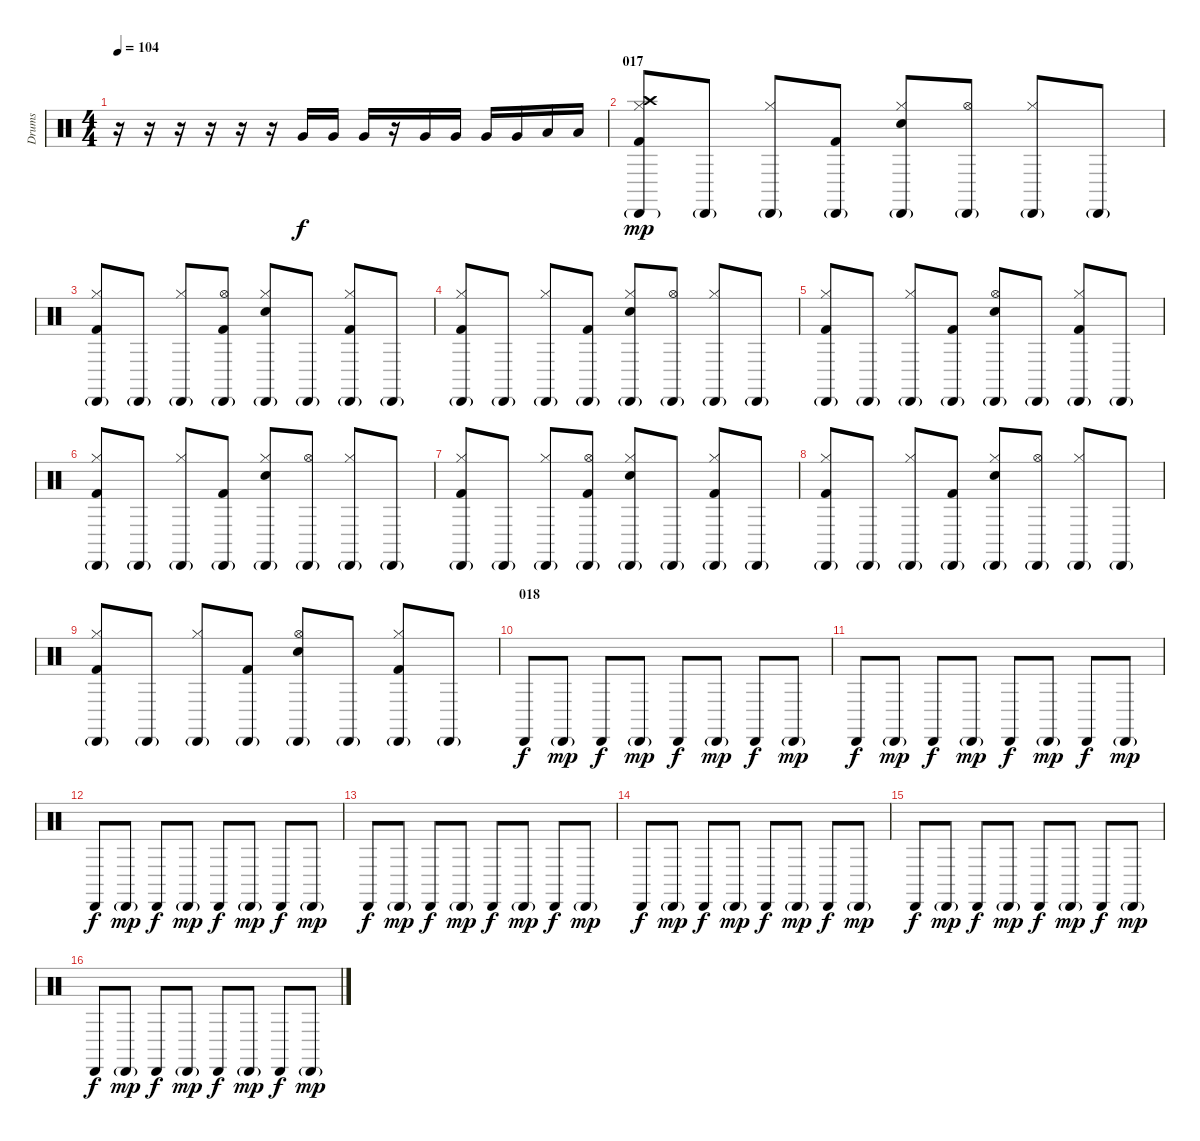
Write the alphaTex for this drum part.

\track ("Drums" "Drums") {instrument percussion}
\staff {score}
\articulation defaults
\ts (4 4)
\tempo 104
\clef neutral
\ks c
r.16{dy f} r.16 r.16 r.16 r.16 r.16 "Very Low Tom (hit)".16 "Very Low Tom (hit)".16 "Very Low Tom (hit)".16 r.16 "Very Low Tom (hit)".16 "Very Low Tom (hit)".16 "Very Low Tom (hit)".16 "Very Low Tom (hit)".16 "Low Floor Tom (hit)".16 "Low Floor Tom (hit)".16 |
\section ("" "017")
("Hi-Hat (closed)" "Kick (hit) 2" "Cabasa (hit)"{g} "Crash high (hit)").8{dy mp} "Cabasa (hit)"{g}.8 ("Hi-Hat (closed)" "Cabasa (hit)"{g}).8 ("Kick (hit) 2" "Cabasa (hit)"{g}).8 ("Hi-Hat (closed)" "Electric Snare (hit)" "Cabasa (hit)"{g}).8 ("Hi-Hat (open)" "Cabasa (hit)"{g}).8 ("Hi-Hat (closed)" "Cabasa (hit)"{g}).8 "Cabasa (hit)"{g}.8 |
("Hi-Hat (closed)" "Kick (hit) 2" "Cabasa (hit)"{g}).8 "Cabasa (hit)"{g}.8 ("Hi-Hat (closed)" "Cabasa (hit)"{g}).8 ("Hi-Hat (open)" "Kick (hit) 2" "Cabasa (hit)"{g}).8 ("Hi-Hat (closed)" "Electric Snare (hit)" "Cabasa (hit)"{g}).8 "Cabasa (hit)"{g}.8 ("Hi-Hat (closed)" "Kick (hit) 2" "Cabasa (hit)"{g}).8 "Cabasa (hit)"{g}.8 |
("Hi-Hat (closed)" "Kick (hit) 2" "Cabasa (hit)"{g}).8 "Cabasa (hit)"{g}.8 ("Hi-Hat (closed)" "Cabasa (hit)"{g}).8 ("Kick (hit) 2" "Cabasa (hit)"{g}).8 ("Hi-Hat (closed)" "Electric Snare (hit)" "Cabasa (hit)"{g}).8 ("Hi-Hat (open)" "Cabasa (hit)"{g}).8 ("Hi-Hat (closed)" "Cabasa (hit)"{g}).8 "Cabasa (hit)"{g}.8 |
("Hi-Hat (closed)" "Kick (hit) 2" "Cabasa (hit)"{g}).8 "Cabasa (hit)"{g}.8 ("Hi-Hat (closed)" "Cabasa (hit)"{g}).8 ("Kick (hit) 2" "Cabasa (hit)"{g}).8 ("Hi-Hat (open)" "Electric Snare (hit)" "Cabasa (hit)"{g}).8 "Cabasa (hit)"{g}.8 ("Hi-Hat (closed)" "Kick (hit) 2" "Cabasa (hit)"{g}).8 "Cabasa (hit)"{g}.8 |
("Hi-Hat (closed)" "Kick (hit) 2" "Cabasa (hit)"{g}).8 "Cabasa (hit)"{g}.8 ("Hi-Hat (closed)" "Cabasa (hit)"{g}).8 ("Kick (hit) 2" "Cabasa (hit)"{g}).8 ("Hi-Hat (closed)" "Electric Snare (hit)" "Cabasa (hit)"{g}).8 ("Hi-Hat (open)" "Cabasa (hit)"{g}).8 ("Hi-Hat (closed)" "Cabasa (hit)"{g}).8 "Cabasa (hit)"{g}.8 |
("Hi-Hat (closed)" "Kick (hit) 2" "Cabasa (hit)"{g}).8 "Cabasa (hit)"{g}.8 ("Hi-Hat (closed)" "Cabasa (hit)"{g}).8 ("Hi-Hat (open)" "Kick (hit) 2" "Cabasa (hit)"{g}).8 ("Hi-Hat (closed)" "Electric Snare (hit)" "Cabasa (hit)"{g}).8 "Cabasa (hit)"{g}.8 ("Hi-Hat (closed)" "Kick (hit) 2" "Cabasa (hit)"{g}).8 "Cabasa (hit)"{g}.8 |
("Hi-Hat (closed)" "Kick (hit) 2" "Cabasa (hit)"{g}).8 "Cabasa (hit)"{g}.8 ("Hi-Hat (closed)" "Cabasa (hit)"{g}).8 ("Kick (hit) 2" "Cabasa (hit)"{g}).8 ("Hi-Hat (closed)" "Electric Snare (hit)" "Cabasa (hit)"{g}).8 ("Hi-Hat (open)" "Cabasa (hit)"{g}).8 ("Hi-Hat (closed)" "Cabasa (hit)"{g}).8 "Cabasa (hit)"{g}.8 |
("Hi-Hat (closed)" "Kick (hit) 2" "Cabasa (hit)"{g}).8 "Cabasa (hit)"{g}.8 ("Hi-Hat (closed)" "Cabasa (hit)"{g}).8 ("Kick (hit) 2" "Cabasa (hit)"{g}).8 ("Hi-Hat (open)" "Electric Snare (hit)" "Cabasa (hit)"{g}).8 "Cabasa (hit)"{g}.8 ("Hi-Hat (closed)" "Kick (hit) 2" "Cabasa (hit)"{g}).8 "Cabasa (hit)"{g}.8 |
\section ("" "018")
"Cabasa (hit)".8{dy f} "Cabasa (hit)"{g}.8{dy mp} "Cabasa (hit)".8{dy f} "Cabasa (hit)"{g}.8{dy mp} "Cabasa (hit)".8{dy f} "Cabasa (hit)"{g}.8{dy mp} "Cabasa (hit)".8{dy f} "Cabasa (hit)"{g}.8{dy mp} |
"Cabasa (hit)".8{dy f} "Cabasa (hit)"{g}.8{dy mp} "Cabasa (hit)".8{dy f} "Cabasa (hit)"{g}.8{dy mp} "Cabasa (hit)".8{dy f} "Cabasa (hit)"{g}.8{dy mp} "Cabasa (hit)".8{dy f} "Cabasa (hit)"{g}.8{dy mp} |
"Cabasa (hit)".8{dy f} "Cabasa (hit)"{g}.8{dy mp} "Cabasa (hit)".8{dy f} "Cabasa (hit)"{g}.8{dy mp} "Cabasa (hit)".8{dy f} "Cabasa (hit)"{g}.8{dy mp} "Cabasa (hit)".8{dy f} "Cabasa (hit)"{g}.8{dy mp} |
"Cabasa (hit)".8{dy f} "Cabasa (hit)"{g}.8{dy mp} "Cabasa (hit)".8{dy f} "Cabasa (hit)"{g}.8{dy mp} "Cabasa (hit)".8{dy f} "Cabasa (hit)"{g}.8{dy mp} "Cabasa (hit)".8{dy f} "Cabasa (hit)"{g}.8{dy mp} |
"Cabasa (hit)".8{dy f} "Cabasa (hit)"{g}.8{dy mp} "Cabasa (hit)".8{dy f} "Cabasa (hit)"{g}.8{dy mp} "Cabasa (hit)".8{dy f} "Cabasa (hit)"{g}.8{dy mp} "Cabasa (hit)".8{dy f} "Cabasa (hit)"{g}.8{dy mp} |
"Cabasa (hit)".8{dy f} "Cabasa (hit)"{g}.8{dy mp} "Cabasa (hit)".8{dy f} "Cabasa (hit)"{g}.8{dy mp} "Cabasa (hit)".8{dy f} "Cabasa (hit)"{g}.8{dy mp} "Cabasa (hit)".8{dy f} "Cabasa (hit)"{g}.8{dy mp} |
"Cabasa (hit)".8{dy f} "Cabasa (hit)"{g}.8{dy mp} "Cabasa (hit)".8{dy f} "Cabasa (hit)"{g}.8{dy mp} "Cabasa (hit)".8{dy f} "Cabasa (hit)"{g}.8{dy mp} "Cabasa (hit)".8{dy f} "Cabasa (hit)"{g}.8{dy mp}
